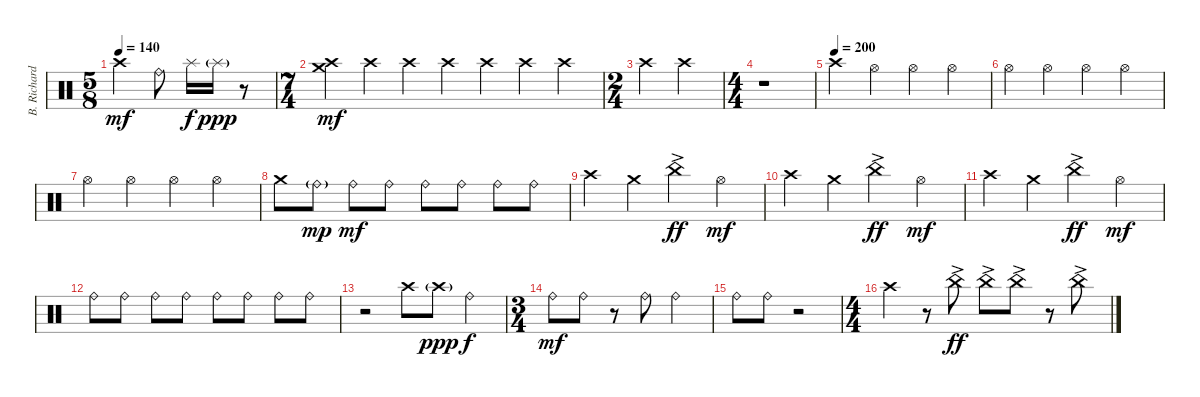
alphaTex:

\track ("B. Richardson Drums" "B. Richard") {instrument percussion}
\staff {score}
\articulation defaults
\ts (5 8)
\tempo 140
\clef neutral
\ks c "Crash high (hit)".4{dy mf} "Ride (bell)".8 "Splash (hit)".16{dy f} "Splash (hit)"{g}.16{dy ppp}
r.8 |
\ts (7 4)
("Crash high (hit)" "Crash medium (hit)").4{dy mf} "Crash high (hit)".4 "Crash high (hit)".4 "Crash high (hit)".4 "Crash high (hit)".4 "Crash high (hit)".4 "Crash high (hit)".4 |
\ts (2 4)
"Crash high (hit)".4 "Crash high (hit)".4 |
\ts (4 4)
r.1 |
\tempo (200)
"Crash high (hit)".4 "Hi-Hat (open)".4 "Hi-Hat (open)".4 "Hi-Hat (open)".4 |
"Hi-Hat (open)".4 "Hi-Hat (open)".4 "Hi-Hat (open)".4 "Hi-Hat (open)".4 |
"Hi-Hat (open)".4 "Hi-Hat (open)".4 "Hi-Hat (open)".4 "Hi-Hat (open)".4 |
"Crash medium (hit)".8 "Ride (bell)"{g}.8{dy mp} "Ride (bell)".8{dy mf} "Ride (bell)".8 "Ride (bell)".8 "Ride (bell)".8 "Ride (bell)".8 "Ride (bell)".8 |
"Crash high (hit)".4 "Crash medium (hit)".4 "China (hit)"{ac}.4{dy ff} "Hi-Hat (open)".4{dy mf} |
"Crash high (hit)".4 "Crash medium (hit)".4 "China (hit)"{ac}.4{dy ff} "Hi-Hat (open)".4{dy mf} |
"Crash high (hit)".4 "Crash medium (hit)".4 "China (hit)"{ac}.4{dy ff} "Hi-Hat (open)".4{dy mf} |
"Ride (bell)".8 "Ride (bell)".8 "Ride (bell)".8 "Ride (bell)".8 "Ride (bell)".8 "Ride (bell)".8 "Ride (bell)".8 "Ride (bell)".8 |
r.2 "Crash high (hit)".8 "Crash high (hit)"{g}.8{dy ppp} "Ride (bell)".4{dy f} |
\ts (3 4)
"Ride (bell)".8{dy mf} "Ride (bell)".8 r.8 "Ride (bell)".8 "Ride (bell)".4 |
"Ride (bell)".8 "Ride (bell)".8 r.2 |
\ts (4 4)
"Crash high (hit)".4 r.8 "China (hit)"{ac}.8{dy ff} "China (hit)"{ac}.8 "China (hit)"{ac}.8 r.8 "China (hit)"{ac}.8
